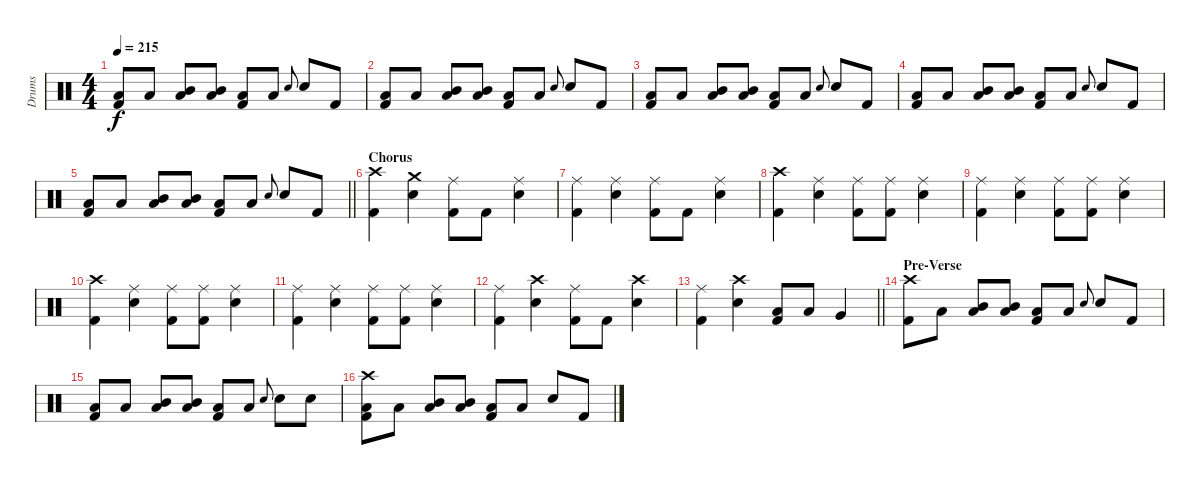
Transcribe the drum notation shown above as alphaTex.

\track ("Drums" "Drums") {instrument percussion}
\staff {score}
\articulation defaults
\ts (4 4)
\tempo 215
\clef neutral
\ks c
("Low Tom (hit)" "Kick (hit) 2").8{dy f} "Low Tom (hit)".8 ("Mid Tom (hit)" "Low Tom (hit)").8 ("Mid Tom (hit)" "Low Tom (hit)").8 ("Low Tom (hit)" "Kick (hit) 2").8 "Low Tom (hit)".8 "Snare (hit) 2".8{gr onbeat} "Snare (hit) 2".8 "Kick (hit) 2".8 |
("Low Tom (hit)" "Kick (hit) 2").8 "Low Tom (hit)".8 ("Mid Tom (hit)" "Low Tom (hit)").8 ("Mid Tom (hit)" "Low Tom (hit)").8 ("Low Tom (hit)" "Kick (hit) 2").8 "Low Tom (hit)".8 "Snare (hit) 2".8{gr onbeat} "Snare (hit) 2".8 "Kick (hit) 2".8 |
("Low Tom (hit)" "Kick (hit) 2").8 "Low Tom (hit)".8 ("Mid Tom (hit)" "Low Tom (hit)").8 ("Mid Tom (hit)" "Low Tom (hit)").8 ("Low Tom (hit)" "Kick (hit) 2").8 "Low Tom (hit)".8 "Snare (hit) 2".8{gr onbeat} "Snare (hit) 2".8 "Kick (hit) 2".8 |
("Low Tom (hit)" "Kick (hit) 2").8 "Low Tom (hit)".8 ("Mid Tom (hit)" "Low Tom (hit)").8 ("Mid Tom (hit)" "Low Tom (hit)").8 ("Low Tom (hit)" "Kick (hit) 2").8 "Low Tom (hit)".8 "Snare (hit) 2".8{gr onbeat} "Snare (hit) 2".8 "Kick (hit) 2".8 |
\barLineRight lightlight
("Low Tom (hit)" "Kick (hit) 2").8 "Low Tom (hit)".8 ("Mid Tom (hit)" "Low Tom (hit)").8 ("Mid Tom (hit)" "Low Tom (hit)").8 ("Low Tom (hit)" "Kick (hit) 2").8 "Low Tom (hit)".8 "Snare (hit) 2".8{gr onbeat} "Snare (hit) 2".8 "Kick (hit) 2".8 |
\section ("" "Chorus")
("Crash high (hit)" "Kick (hit) 2").4 ("Crash medium (hit)" "Snare (hit) 2").4 ("Ride (middle)" "Kick (hit) 2").8 "Kick (hit) 2".8 ("Ride (middle)" "Snare (hit) 2").4 |
("Ride (middle)" "Kick (hit) 2").4 ("Ride (middle)" "Snare (hit) 2").4 ("Ride (middle)" "Kick (hit) 2").8 "Kick (hit) 2".8 ("Ride (middle)" "Snare (hit) 2").4 |
("Crash high (hit)" "Kick (hit) 2").4 ("Ride (middle)" "Snare (hit) 2").4 ("Ride (middle)" "Kick (hit) 2").8 ("Ride (middle)" "Kick (hit) 2").8 ("Ride (middle)" "Snare (hit) 2").4 |
("Ride (middle)" "Kick (hit) 2").4 ("Ride (middle)" "Snare (hit) 2").4 ("Ride (middle)" "Kick (hit) 2").8 ("Ride (middle)" "Kick (hit) 2").8 ("Ride (middle)" "Snare (hit) 2").4 |
("Crash high (hit)" "Kick (hit) 2").4 ("Ride (middle)" "Snare (hit) 2").4 ("Ride (middle)" "Kick (hit) 2").8 ("Ride (middle)" "Kick (hit) 2").8 ("Ride (middle)" "Snare (hit) 2").4 |
("Ride (middle)" "Kick (hit) 2").4 ("Ride (middle)" "Snare (hit) 2").4 ("Ride (middle)" "Kick (hit) 2").8 ("Ride (middle)" "Kick (hit) 2").8 ("Ride (middle)" "Snare (hit) 2").4 |
("Ride (middle)" "Kick (hit) 2").4 ("Crash high (hit)" "Snare (hit) 2").4 ("Ride (middle)" "Kick (hit) 2").8 "Kick (hit) 2".8 ("Crash high (hit)" "Snare (hit) 2").4 |
\barLineRight lightlight
("Ride (middle)" "Kick (hit) 2").4 ("Crash high (hit)" "Snare (hit) 2").4 ("Low Tom (hit)" "Kick (hit) 2").8 "Low Tom (hit)".8 "Very Low Tom (hit)".4 |
\section ("" "Pre-Verse")
("Crash high (hit)" "Kick (hit) 2").8 "Low Tom (hit)".8 ("Mid Tom (hit)" "Low Tom (hit)").8 ("Mid Tom (hit)" "Low Tom (hit)").8 ("Low Tom (hit)" "Kick (hit) 2").8 "Low Tom (hit)".8 "Snare (hit) 2".8{gr onbeat} "Snare (hit) 2".8 "Kick (hit) 2".8 |
("Low Tom (hit)" "Kick (hit) 2").8 "Low Tom (hit)".8 ("Mid Tom (hit)" "Low Tom (hit)").8 ("Mid Tom (hit)" "Low Tom (hit)").8 ("Low Tom (hit)" "Kick (hit) 2").8 "Low Tom (hit)".8 "Snare (hit) 2".8{gr onbeat} "Snare (hit) 2".8 "Snare (hit) 2".8 |
("Crash high (hit)" "Low Tom (hit)" "Kick (hit) 2").8 "Low Tom (hit)".8 ("Mid Tom (hit)" "Low Tom (hit)").8 ("Mid Tom (hit)" "Low Tom (hit)").8 ("Low Tom (hit)" "Kick (hit) 2").8 "Low Tom (hit)".8 "Snare (hit) 2".8 "Kick (hit) 2".8
